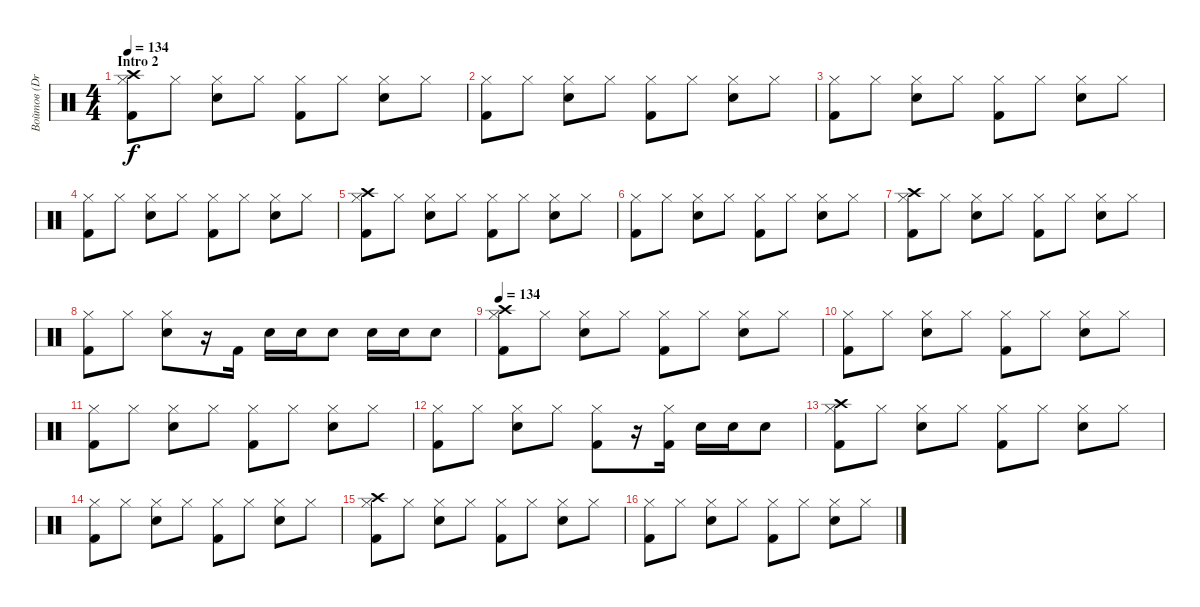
\track ("Войтов (Drums)" "Войтов (Dr") {instrument percussion}
\staff {score}
\articulation defaults
\ts (4 4)
\section ("" "Intro 2")
\tempo 134
\clef neutral
\ks c
("Hi-Hat (closed)" "Kick (hit) 2" "Crash high (hit)").8{dy f} "Hi-Hat (closed)".8 ("Hi-Hat (closed)" "Electric Snare (hit)").8 "Hi-Hat (closed)".8 ("Hi-Hat (closed)" "Kick (hit) 2").8 "Hi-Hat (closed)".8 ("Hi-Hat (closed)" "Electric Snare (hit)").8 "Hi-Hat (closed)".8 |
("Hi-Hat (closed)" "Kick (hit) 2").8 "Hi-Hat (closed)".8 ("Hi-Hat (closed)" "Electric Snare (hit)").8 "Hi-Hat (closed)".8 ("Hi-Hat (closed)" "Kick (hit) 2").8 "Hi-Hat (closed)".8 ("Hi-Hat (closed)" "Electric Snare (hit)").8 "Hi-Hat (closed)".8 |
("Hi-Hat (closed)" "Kick (hit) 2").8 "Hi-Hat (closed)".8 ("Hi-Hat (closed)" "Electric Snare (hit)").8 "Hi-Hat (closed)".8 ("Hi-Hat (closed)" "Kick (hit) 2").8 "Hi-Hat (closed)".8 ("Hi-Hat (closed)" "Electric Snare (hit)").8 "Hi-Hat (closed)".8 |
("Hi-Hat (closed)" "Kick (hit) 2").8 "Hi-Hat (closed)".8 ("Hi-Hat (closed)" "Electric Snare (hit)").8 "Hi-Hat (closed)".8 ("Hi-Hat (closed)" "Kick (hit) 2").8 "Hi-Hat (closed)".8 ("Hi-Hat (closed)" "Electric Snare (hit)").8 "Hi-Hat (closed)".8 |
("Hi-Hat (closed)" "Kick (hit) 2" "Crash high (hit)").8 "Hi-Hat (closed)".8 ("Hi-Hat (closed)" "Electric Snare (hit)").8 "Hi-Hat (closed)".8 ("Hi-Hat (closed)" "Kick (hit) 2").8 "Hi-Hat (closed)".8 ("Hi-Hat (closed)" "Electric Snare (hit)").8 "Hi-Hat (closed)".8 |
("Hi-Hat (closed)" "Kick (hit) 2").8 "Hi-Hat (closed)".8 ("Hi-Hat (closed)" "Electric Snare (hit)").8 "Hi-Hat (closed)".8 ("Hi-Hat (closed)" "Kick (hit) 2").8 "Hi-Hat (closed)".8 ("Hi-Hat (closed)" "Electric Snare (hit)").8 "Hi-Hat (closed)".8 |
("Hi-Hat (closed)" "Kick (hit) 2" "Crash high (hit)").8 "Hi-Hat (closed)".8 ("Hi-Hat (closed)" "Electric Snare (hit)").8 "Hi-Hat (closed)".8 ("Hi-Hat (closed)" "Kick (hit) 2").8 "Hi-Hat (closed)".8 ("Hi-Hat (closed)" "Electric Snare (hit)").8 "Hi-Hat (closed)".8 |
("Hi-Hat (closed)" "Kick (hit) 2").8 "Hi-Hat (closed)".8 ("Hi-Hat (closed)" "Electric Snare (hit)").8 r.16 "Kick (hit) 2".16 "Electric Snare (hit)".16 "Electric Snare (hit)".16 "Electric Snare (hit)".8 "Electric Snare (hit)".16 "Electric Snare (hit)".16 "Electric Snare (hit)".8 |
\tempo 134
("Hi-Hat (closed)" "Kick (hit) 2" "Crash high (hit)").8 "Hi-Hat (closed)".8 ("Hi-Hat (closed)" "Electric Snare (hit)").8 "Hi-Hat (closed)".8 ("Hi-Hat (closed)" "Kick (hit) 2").8 "Hi-Hat (closed)".8 ("Hi-Hat (closed)" "Electric Snare (hit)").8 "Hi-Hat (closed)".8 |
("Hi-Hat (closed)" "Kick (hit) 2").8 "Hi-Hat (closed)".8 ("Hi-Hat (closed)" "Electric Snare (hit)").8 "Hi-Hat (closed)".8 ("Hi-Hat (closed)" "Kick (hit) 2").8 "Hi-Hat (closed)".8 ("Hi-Hat (closed)" "Electric Snare (hit)").8 "Hi-Hat (closed)".8 |
("Hi-Hat (closed)" "Kick (hit) 2").8 "Hi-Hat (closed)".8 ("Hi-Hat (closed)" "Electric Snare (hit)").8 "Hi-Hat (closed)".8 ("Hi-Hat (closed)" "Kick (hit) 2").8 "Hi-Hat (closed)".8 ("Hi-Hat (closed)" "Electric Snare (hit)").8 "Hi-Hat (closed)".8 |
("Hi-Hat (closed)" "Kick (hit) 2").8 "Hi-Hat (closed)".8 ("Hi-Hat (closed)" "Electric Snare (hit)").8 "Hi-Hat (closed)".8 ("Hi-Hat (closed)" "Kick (hit) 2").8 r.16 ("Hi-Hat (closed)" "Kick (hit) 2").16 "Electric Snare (hit)".16 "Electric Snare (hit)".16 "Electric Snare (hit)".8 |
("Hi-Hat (closed)" "Kick (hit) 2" "Crash high (hit)").8 "Hi-Hat (closed)".8 ("Hi-Hat (closed)" "Electric Snare (hit)").8 "Hi-Hat (closed)".8 ("Hi-Hat (closed)" "Kick (hit) 2").8 "Hi-Hat (closed)".8 ("Hi-Hat (closed)" "Electric Snare (hit)").8 "Hi-Hat (closed)".8 |
("Hi-Hat (closed)" "Kick (hit) 2").8 "Hi-Hat (closed)".8 ("Hi-Hat (closed)" "Electric Snare (hit)").8 "Hi-Hat (closed)".8 ("Hi-Hat (closed)" "Kick (hit) 2").8 "Hi-Hat (closed)".8 ("Hi-Hat (closed)" "Electric Snare (hit)").8 "Hi-Hat (closed)".8 |
("Hi-Hat (closed)" "Kick (hit) 2" "Crash high (hit)").8 "Hi-Hat (closed)".8 ("Hi-Hat (closed)" "Electric Snare (hit)").8 "Hi-Hat (closed)".8 ("Hi-Hat (closed)" "Kick (hit) 2").8 "Hi-Hat (closed)".8 ("Hi-Hat (closed)" "Electric Snare (hit)").8 "Hi-Hat (closed)".8 |
("Hi-Hat (closed)" "Kick (hit) 2").8 "Hi-Hat (closed)".8 ("Hi-Hat (closed)" "Electric Snare (hit)").8 "Hi-Hat (closed)".8 ("Hi-Hat (closed)" "Kick (hit) 2").8 "Hi-Hat (closed)".8 ("Hi-Hat (closed)" "Electric Snare (hit)").8 "Hi-Hat (closed)".8
